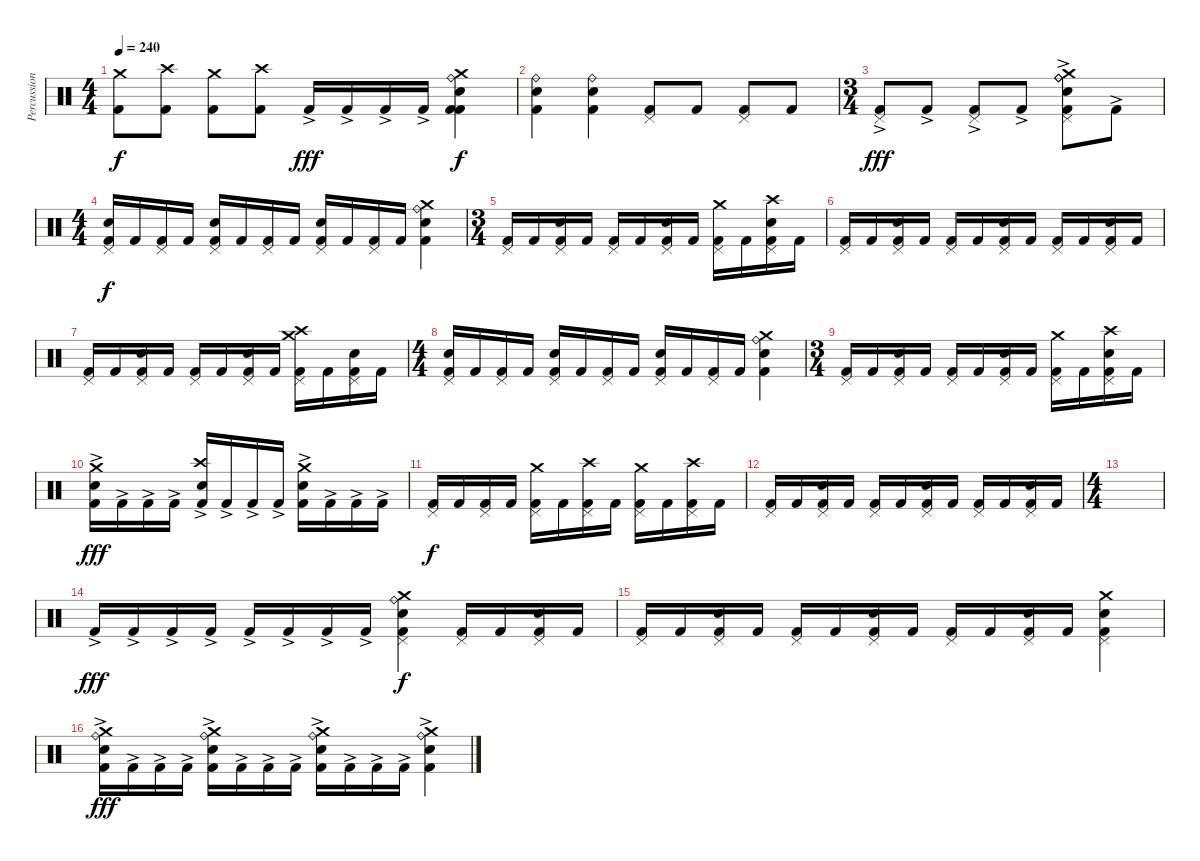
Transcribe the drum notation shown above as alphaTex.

\track ("Percussions" "Percussion") {instrument percussion}
\staff {score}
\articulation defaults
\ts (4 4)
\tempo 240
\clef neutral
\ks c
("Crash medium (hit)" "Kick (hit) 2").8{dy f} ("Crash high (hit)" "Kick (hit) 2").8 ("Crash medium (hit)" "Kick (hit) 2").8 ("Crash high (hit)" "Kick (hit) 2").8 "Kick (hit) 2"{ac}.16{dy fff} "Kick (hit) 2"{ac}.16 "Kick (hit) 2"{ac}.16 "Kick (hit) 2"{ac}.16 ("Snare (hit) 2" "Crash medium (hit)" "Ride (bell)" "Kick (hit) 2" "Kick (hit) 2").4{dy f} |
("Snare (hit) 2" "Ride (bell)" "Kick (hit) 2").4 ("Snare (hit) 2" "Ride (bell)" "Kick (hit) 2").4 ("Pedal Hi-Hat (hit)" "Kick (hit) 2").8 "Kick (hit) 2".8 ("Pedal Hi-Hat (hit)" "Kick (hit) 2").8 "Kick (hit) 2".8 |
\ts (3 4)
("Pedal Hi-Hat (hit)" "Kick (hit) 2"{ac}).8{dy fff} "Kick (hit) 2"{ac}.8 ("Pedal Hi-Hat (hit)" "Kick (hit) 2"{ac}).8 "Kick (hit) 2"{ac}.8 ("Crash medium (hit)" "Snare (hit) 2" "Ride (bell)" "Ride (bell)" "Pedal Hi-Hat (hit)" "Kick (hit) 2"{ac}).8 "Kick (hit) 2"{ac}.8 |
\ts (4 4)
("Snare (hit) 2" "Pedal Hi-Hat (hit)" "Kick (hit) 2").16{dy f} "Kick (hit) 2".16 ("Pedal Hi-Hat (hit)" "Kick (hit) 2").16 "Kick (hit) 2".16 ("Snare (hit) 2" "Pedal Hi-Hat (hit)" "Kick (hit) 2").16 "Kick (hit) 2".16 ("Pedal Hi-Hat (hit)" "Kick (hit) 2").16 "Kick (hit) 2".16 ("Snare (hit) 2" "Pedal Hi-Hat (hit)" "Kick (hit) 2").16 "Kick (hit) 2".16 ("Pedal Hi-Hat (hit)" "Kick (hit) 2").16 "Kick (hit) 2".16 ("Snare (hit) 2" "Crash medium (hit)" "Ride (bell)" "Kick (hit) 2").4 |
\ts (3 4)
("Pedal Hi-Hat (hit)" "Kick (hit) 2").16 "Kick (hit) 2".16 ("Snare (hit) 2" "Pedal Hi-Hat (hit)" "Kick (hit) 2").16 "Kick (hit) 2".16 ("Pedal Hi-Hat (hit)" "Kick (hit) 2").16 "Kick (hit) 2".16 ("Snare (hit) 2" "Pedal Hi-Hat (hit)" "Kick (hit) 2").16 "Kick (hit) 2".16 ("Crash medium (hit)" "Pedal Hi-Hat (hit)" "Kick (hit) 2").16 "Kick (hit) 2".16 ("Crash high (hit)" "Snare (hit) 2" "Pedal Hi-Hat (hit)" "Kick (hit) 2").16 "Kick (hit) 2".16 |
("Pedal Hi-Hat (hit)" "Kick (hit) 2").16 "Kick (hit) 2".16 ("Snare (hit) 2" "Pedal Hi-Hat (hit)" "Kick (hit) 2").16 "Kick (hit) 2".16 ("Pedal Hi-Hat (hit)" "Kick (hit) 2").16 "Kick (hit) 2".16 ("Snare (hit) 2" "Pedal Hi-Hat (hit)" "Kick (hit) 2").16 "Kick (hit) 2".16 ("Pedal Hi-Hat (hit)" "Kick (hit) 2").16 "Kick (hit) 2".16 ("Snare (hit) 2" "Pedal Hi-Hat (hit)" "Kick (hit) 2").16 "Kick (hit) 2".16 |
("Pedal Hi-Hat (hit)" "Kick (hit) 2").16 "Kick (hit) 2".16 ("Snare (hit) 2" "Pedal Hi-Hat (hit)" "Kick (hit) 2").16 "Kick (hit) 2".16 ("Pedal Hi-Hat (hit)" "Kick (hit) 2").16 "Kick (hit) 2".16 ("Snare (hit) 2" "Pedal Hi-Hat (hit)" "Kick (hit) 2").16 "Kick (hit) 2".16 ("Crash medium (hit)" "Crash high (hit)" "Pedal Hi-Hat (hit)" "Kick (hit) 2").16 "Kick (hit) 2".16 ("Snare (hit) 2" "Pedal Hi-Hat (hit)" "Kick (hit) 2").16 "Kick (hit) 2".16 |
\ts (4 4)
("Snare (hit) 2" "Pedal Hi-Hat (hit)" "Kick (hit) 2").16 "Kick (hit) 2".16 ("Pedal Hi-Hat (hit)" "Kick (hit) 2").16 "Kick (hit) 2".16 ("Snare (hit) 2" "Pedal Hi-Hat (hit)" "Kick (hit) 2").16 "Kick (hit) 2".16 ("Pedal Hi-Hat (hit)" "Kick (hit) 2").16 "Kick (hit) 2".16 ("Snare (hit) 2" "Pedal Hi-Hat (hit)" "Kick (hit) 2").16 "Kick (hit) 2".16 ("Pedal Hi-Hat (hit)" "Kick (hit) 2").16 "Kick (hit) 2".16 ("Snare (hit) 2" "Crash medium (hit)" "Ride (bell)" "Kick (hit) 2").4 |
\ts (3 4)
("Pedal Hi-Hat (hit)" "Kick (hit) 2").16 "Kick (hit) 2".16 ("Snare (hit) 2" "Pedal Hi-Hat (hit)" "Kick (hit) 2").16 "Kick (hit) 2".16 ("Pedal Hi-Hat (hit)" "Kick (hit) 2").16 "Kick (hit) 2".16 ("Snare (hit) 2" "Pedal Hi-Hat (hit)" "Kick (hit) 2").16 "Kick (hit) 2".16 ("Crash medium (hit)" "Pedal Hi-Hat (hit)" "Kick (hit) 2").16 "Kick (hit) 2".16 ("Crash high (hit)" "Snare (hit) 2" "Pedal Hi-Hat (hit)" "Kick (hit) 2").16 "Kick (hit) 2".16 |
("Snare (hit) 2" "Crash medium (hit)" "Kick (hit) 2"{ac}).16{dy fff} "Kick (hit) 2"{ac}.16 "Kick (hit) 2"{ac}.16 "Kick (hit) 2"{ac}.16 ("Snare (hit) 2" "Crash high (hit)" "Kick (hit) 2"{ac}).16 "Kick (hit) 2"{ac}.16 "Kick (hit) 2"{ac}.16 "Kick (hit) 2"{ac}.16 ("Snare (hit) 2" "Crash medium (hit)" "Kick (hit) 2"{ac}).16 "Kick (hit) 2"{ac}.16 "Kick (hit) 2"{ac}.16 "Kick (hit) 2"{ac}.16 |
("Pedal Hi-Hat (hit)" "Kick (hit) 2").16{dy f} "Kick (hit) 2".16 ("Pedal Hi-Hat (hit)" "Kick (hit) 2").16 "Kick (hit) 2".16 ("Crash medium (hit)" "Pedal Hi-Hat (hit)" "Kick (hit) 2").16 "Kick (hit) 2".16 ("Crash high (hit)" "Pedal Hi-Hat (hit)" "Kick (hit) 2").16 "Kick (hit) 2".16 ("Crash medium (hit)" "Pedal Hi-Hat (hit)" "Kick (hit) 2").16 "Kick (hit) 2".16 ("Crash high (hit)" "Pedal Hi-Hat (hit)" "Kick (hit) 2").16 "Kick (hit) 2".16 |
("Pedal Hi-Hat (hit)" "Kick (hit) 2").16 "Kick (hit) 2".16 ("Snare (hit) 2" "Pedal Hi-Hat (hit)" "Kick (hit) 2").16 "Kick (hit) 2".16 ("Pedal Hi-Hat (hit)" "Kick (hit) 2").16 "Kick (hit) 2".16 ("Snare (hit) 2" "Pedal Hi-Hat (hit)" "Kick (hit) 2").16 "Kick (hit) 2".16 ("Pedal Hi-Hat (hit)" "Kick (hit) 2").16 "Kick (hit) 2".16 ("Snare (hit) 2" "Pedal Hi-Hat (hit)" "Kick (hit) 2").16 "Kick (hit) 2".16 |
\ts (4 4)
|
"Kick (hit) 2"{ac}.16{dy fff} "Kick (hit) 2"{ac}.16 "Kick (hit) 2"{ac}.16 "Kick (hit) 2"{ac}.16 "Kick (hit) 2"{ac}.16 "Kick (hit) 2"{ac}.16 "Kick (hit) 2"{ac}.16 "Kick (hit) 2"{ac}.16 ("Snare (hit) 2" "Crash medium (hit)" "Ride (bell)" "Pedal Hi-Hat (hit)" "Kick (hit) 2").4{dy f} ("Pedal Hi-Hat (hit)" "Kick (hit) 2").16 "Kick (hit) 2".16 ("Snare (hit) 2" "Pedal Hi-Hat (hit)" "Kick (hit) 2").16 "Kick (hit) 2".16 |
("Pedal Hi-Hat (hit)" "Kick (hit) 2").16 "Kick (hit) 2".16 ("Snare (hit) 2" "Pedal Hi-Hat (hit)" "Kick (hit) 2").16 "Kick (hit) 2".16 ("Pedal Hi-Hat (hit)" "Kick (hit) 2").16 "Kick (hit) 2".16 ("Snare (hit) 2" "Pedal Hi-Hat (hit)" "Kick (hit) 2").16 "Kick (hit) 2".16 ("Pedal Hi-Hat (hit)" "Kick (hit) 2").16 "Kick (hit) 2".16 ("Snare (hit) 2" "Pedal Hi-Hat (hit)" "Kick (hit) 2").16 "Kick (hit) 2".16 ("Snare (hit) 2" "Crash medium (hit)" "Pedal Hi-Hat (hit)" "Kick (hit) 2").4 |
("Snare (hit) 2" "Crash medium (hit)" "Ride (bell)" "Kick (hit) 2"{ac}).16{dy fff} "Kick (hit) 2"{ac}.16 "Kick (hit) 2"{ac}.16 "Kick (hit) 2"{ac}.16 ("Snare (hit) 2" "Crash medium (hit)" "Ride (bell)" "Kick (hit) 2"{ac}).16 "Kick (hit) 2"{ac}.16 "Kick (hit) 2"{ac}.16 "Kick (hit) 2"{ac}.16 ("Snare (hit) 2" "Crash medium (hit)" "Ride (bell)" "Kick (hit) 2"{ac}).16 "Kick (hit) 2"{ac}.16 "Kick (hit) 2"{ac}.16 "Kick (hit) 2"{ac}.16 ("Snare (hit) 2" "Crash medium (hit)" "Ride (bell)" "Kick (hit) 2"{ac}).4
